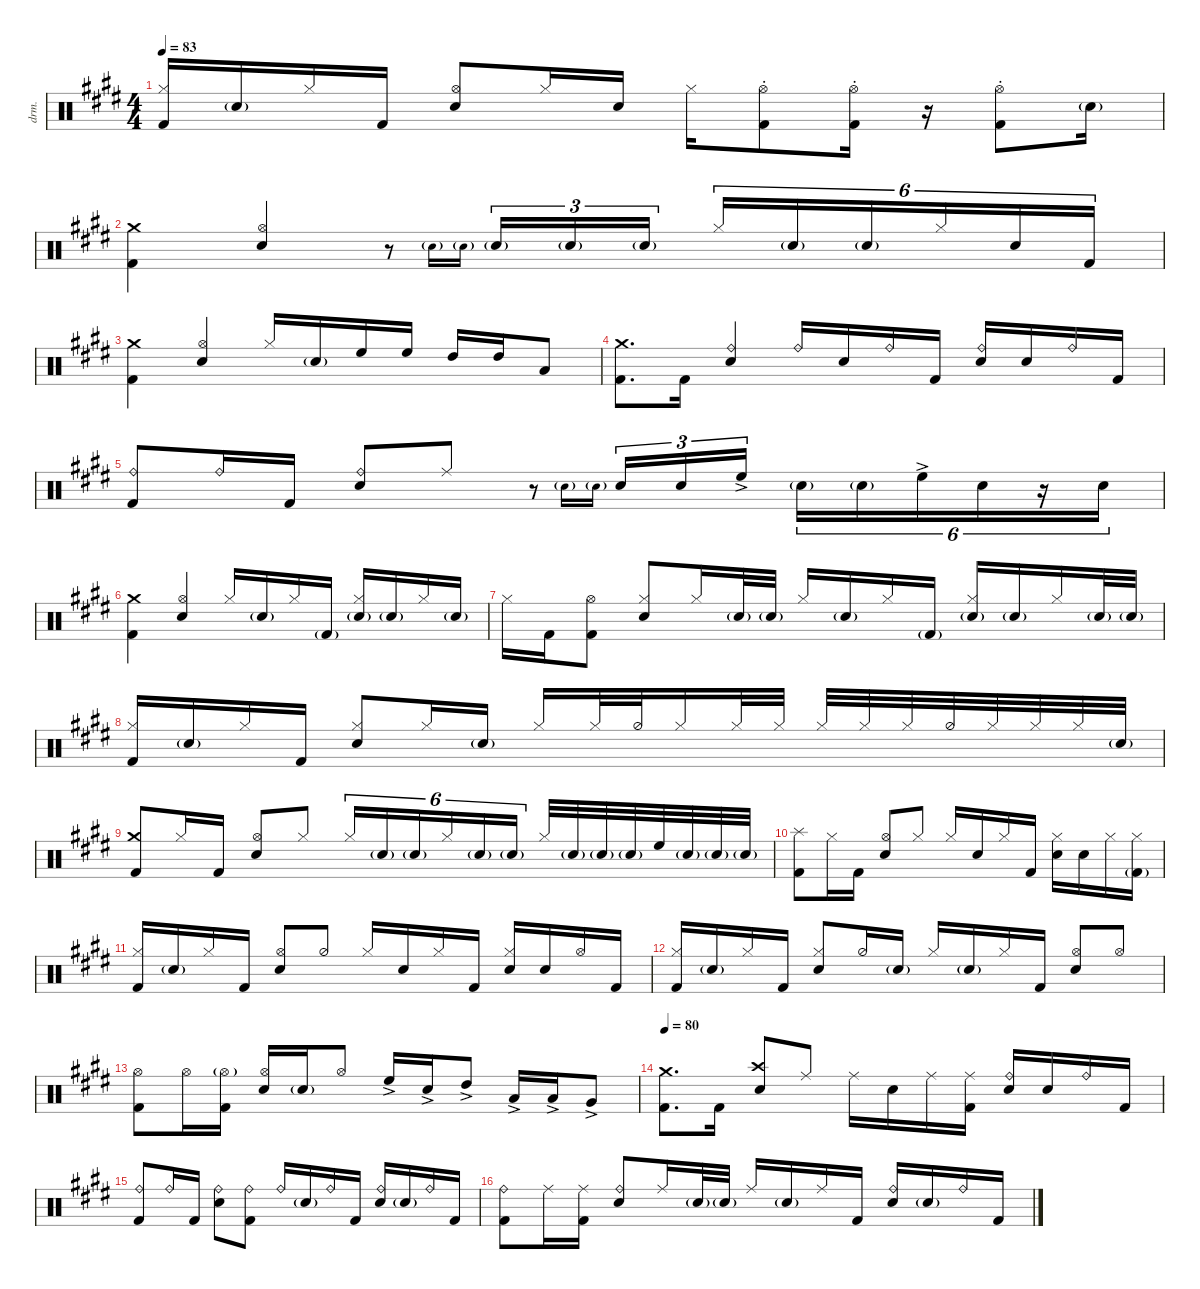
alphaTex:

\defaultSystemsLayout 4
\hideDynamics
\bracketExtendMode groupsimilarinstruments
\otherSystemsTrackNameOrientation horizontal
\chordDiagramsInScore
\track ("Drumkit" "drm.") {instrument percussion}
\staff {score}
\articulation defaults
\ts (4 4)
\tempo 83
\clef neutral
\scale
0.779565
\ks e
("Hi-Hat (closed)"{acc forcenatural} "Kick (hit) 2"{acc forcenatural}).16{dy mf beam Up} "Snare (hit) 2"{g acc forcenatural}.16{beam Up} "Hi-Hat (closed)"{acc forcenatural}.16{beam Up} "Kick (hit) 2"{acc forcenatural}.16{beam Up} ("Hi-Hat (open)"{acc forcenatural} "Snare (hit) 2"{acc forcenatural}).8{beam Up} "Hi-Hat (closed)"{acc forcenatural}.16{beam Up} "Snare (hit) 2"{acc forcenatural}.16{beam Up} "Hi-Hat (closed)"{acc forcenatural}.16 ("Hi-Hat (open)"{st acc forcenatural} "Kick (hit) 2"{acc forcenatural}).8 ("Kick (hit) 2"{acc forcenatural} "Hi-Hat (open)"{st acc forcenatural}).16 r.16 ("Hi-Hat (open)"{st acc forcenatural} "Kick (hit) 2"{acc forcenatural}).8 "Snare (hit) 2"{g acc forcenatural}.16 |
\scale
1.22044 ("Crash medium (hit)"{acc forcenatural} "Kick (hit) 2"{acc forcenatural}).4 ("Snare (hit) 2"{acc forcenatural} "Hi-Hat (open)"{acc forcenatural}).4{beam Up} r.8 "Snare (hit) 2"{g acc forcenatural}.16{gr onbeat beam Down} "Snare (hit) 2"{g acc forcenatural}.16{gr onbeat beam Down} "Snare (hit) 2"{g acc forcenatural}.16{tu (3 2) beam Up} "Snare (hit) 2"{g acc forcenatural}.16{tu (3 2) beam Up} "Snare (hit) 2"{g acc forcenatural}.16{tu (3 2) beam Up} "Hi-Hat (closed)"{acc forcenatural}.16{tu (6 4) beam Up} "Snare (hit) 2"{g acc forcenatural}.16{tu (6 4) beam Up} "Snare (hit) 2"{g acc forcenatural}.16{tu (6 4) beam Up} "Hi-Hat (closed)"{acc forcenatural}.16{tu (6 4) beam Up} "Snare (hit) 2"{acc forcenatural}.16{tu (6 4) beam Up} "Kick (hit) 2"{acc forcenatural}.16{tu (6 4) beam Up} |
("Crash medium (hit)"{acc forcenatural} "Kick (hit) 2"{acc forcenatural}).4 ("Snare (hit) 2"{acc forcenatural} "Hi-Hat (open)"{acc forcenatural}).4{beam Up} "Hi-Hat (closed)"{acc forcenatural}.16{beam Up} "Snare (hit) 2"{g acc forcenatural}.16{beam Up} "High Floor Tom (hit)"{acc forcenatural}.16{beam Up} "High Floor Tom (hit)"{acc forcenatural}.16{beam Up} "High Tom (hit)"{acc forcenatural}.16{beam Up} "High Tom (hit)"{acc forcenatural}.16{beam Up} "Low Tom (hit)"{acc forcenatural}.8{beam Up} |
("Kick (hit) 2"{acc forcenatural} "Crash medium (hit)"{acc forcenatural}).8{d} "Kick (hit) 2"{acc forcenatural}.16 ("Snare (hit) 2"{acc forcenatural} "Ride (bell)"{acc forcenatural}).4{beam Up} "Ride (bell)"{acc forcenatural}.16{beam Up} "Snare (hit) 2"{acc forcenatural}.16{beam Up} "Ride (bell)"{acc forcenatural}.16{beam Up} "Kick (hit) 2"{acc forcenatural}.16{beam Up} ("Ride (bell)"{acc forcenatural} "Snare (hit) 2"{acc forcenatural}).16{beam Up} "Snare (hit) 2"{acc forcenatural}.16{beam Up} "Ride (bell)"{acc forcenatural}.16{beam Up} "Kick (hit) 2"{acc forcenatural}.16{beam Up} |
("Ride (bell)"{acc forcenatural} "Kick (hit) 2"{acc forcenatural}).8{beam Up} "Ride (bell)"{acc forcenatural}.16{beam Up} "Kick (hit) 2"{acc forcenatural}.16{beam Up} ("Ride (bell)"{acc forcenatural} "Snare (hit) 2"{acc forcenatural}).8{beam Up} "Ride (middle)"{acc forcenatural}.8{beam Up} r.8 "Snare (hit) 2"{g acc forcenatural}.16{gr onbeat beam Down} "Snare (hit) 2"{g acc forcenatural}.16{gr onbeat beam Down} "Snare (hit) 2"{acc forcenatural}.16{tu (3 2) beam Up} "Snare (hit) 2"{acc forcenatural}.16{tu (3 2) beam Up} "High Floor Tom (hit)"{ac acc forcenatural}.16{tu (3 2) beam Up} "Snare (hit) 2"{g acc forcenatural}.16{tu (6 4)} "Snare (hit) 2"{g acc forcenatural}.16{tu (6 4)} "High Floor Tom (hit)"{ac acc forcenatural}.16{tu (6 4)} "Snare (hit) 2"{acc forcenatural}.16{tu (6 4)} r.16{tu (6 4)} "Snare (hit) 2"{acc forcenatural}.16{tu (6 4)} |
("Kick (hit) 2"{acc forcenatural} "Crash medium (hit)"{acc forcenatural}).4 ("Hi-Hat (open)"{acc forcenatural} "Snare (hit) 2"{acc forcenatural}).4{beam Up} "Hi-Hat (closed)"{acc forcenatural}.16{beam Up} "Snare (hit) 2"{g acc forcenatural}.16{beam Up} "Hi-Hat (closed)"{acc forcenatural}.16{beam Up} "Kick (hit) 2"{g acc forcenatural}.16{beam Up} ("Snare (hit) 2"{g acc forcenatural} "Hi-Hat (closed)"{acc forcenatural}).16{beam Up} "Snare (hit) 2"{g acc forcenatural}.16{beam Up} "Hi-Hat (closed)"{acc forcenatural}.16{beam Up} "Snare (hit) 2"{g acc forcenatural}.16{beam Up} |
"Hi-Hat (closed)"{acc forcenatural}.16 "Kick (hit) 2"{acc forcenatural}.16 ("Hi-Hat (open)"{acc forcenatural} "Kick (hit) 2"{acc forcenatural}).8 ("Hi-Hat (closed)"{acc forcenatural} "Snare (hit) 2"{acc forcenatural}).8{beam Up} "Hi-Hat (closed)"{acc forcenatural}.16{beam Up} "Snare (hit) 2"{g acc forcenatural}.32{beam Up} "Snare (hit) 2"{g acc forcenatural}.32{beam Up} "Hi-Hat (closed)"{acc forcenatural}.16{beam Up} "Snare (hit) 2"{g acc forcenatural}.16{beam Up} "Hi-Hat (closed)"{acc forcenatural}.16{beam Up} "Kick (hit) 2"{g acc forcenatural}.16{beam Up} ("Hi-Hat (closed)"{acc forcenatural} "Snare (hit) 2"{g acc forcenatural}).16{beam Up} "Snare (hit) 2"{g acc forcenatural}.16{beam Up} "Hi-Hat (closed)"{acc forcenatural}.16{beam Up} "Snare (hit) 2"{g acc forcenatural}.32{beam Up} "Snare (hit) 2"{g acc forcenatural}.32{beam Up} |
("Kick (hit) 2"{acc forcenatural} "Hi-Hat (closed)"{acc forcenatural}).16{beam Up} "Snare (hit) 2"{g acc forcenatural}.16{beam Up} "Hi-Hat (closed)"{acc forcenatural}.16{beam Up} "Kick (hit) 2"{acc forcenatural}.16{beam Up} ("Snare (hit) 2"{acc forcenatural} "Hi-Hat (closed)"{acc forcenatural}).8{beam Up} "Hi-Hat (closed)"{acc forcenatural}.16{beam Up} "Snare (hit) 2"{g acc forcenatural}.16{beam Up} "Hi-Hat (closed)"{acc forcenatural}.16{beam Up} "Hi-Hat (closed)"{acc forcenatural}.32{beam Up} "Hi-Hat (half)"{acc forcenatural}.32{beam Up} "Hi-Hat (closed)"{acc forcenatural}.16{beam Up} "Hi-Hat (closed)"{acc forcenatural}.32{beam Up} "Hi-Hat (closed)"{acc forcenatural}.32{beam Up} "Hi-Hat (closed)"{acc forcenatural}.32{beam Up} "Hi-Hat (closed)"{acc forcenatural}.32{beam Up} "Hi-Hat (closed)"{acc forcenatural}.32{beam Up} "Hi-Hat (half)"{acc forcenatural}.32{beam Up} "Hi-Hat (closed)"{acc forcenatural}.32{beam Up} "Hi-Hat (closed)"{acc forcenatural}.32{beam Up} "Hi-Hat (closed)"{acc forcenatural}.32{beam Up} "Snare (hit) 2"{g acc forcenatural}.32{beam Up} |
\scale
1.22987 ("Crash medium (hit)"{acc forcenatural} "Kick (hit) 2"{acc forcenatural}).8{beam Up} "Hi-Hat (closed)"{acc forcenatural}.16{beam Up} "Kick (hit) 2"{acc forcenatural}.16{beam Up} ("Hi-Hat (open)"{acc forcenatural} "Snare (hit) 2"{acc forcenatural}).8{beam Up} "Hi-Hat (closed)"{acc forcenatural}.8{beam Up} "Hi-Hat (closed)"{acc forcenatural}.16{tu (6 4) beam Up} "Snare (hit) 2"{g acc forcenatural}.16{tu (6 4) beam Up} "Snare (hit) 2"{g acc forcenatural}.16{tu (6 4) beam Up} "Hi-Hat (closed)"{acc forcenatural}.16{tu (6 4) beam Up} "Snare (hit) 2"{g acc forcenatural}.16{tu (6 4) beam Up} "Snare (hit) 2"{g acc forcenatural}.16{tu (6 4) beam Up} "Hi-Hat (closed)"{acc forcenatural}.32{beam Up} "Snare (hit) 2"{g acc forcenatural}.32{beam Up} "Snare (hit) 2"{g acc forcenatural}.32{beam Up} "Snare (hit) 2"{g acc forcenatural}.32{beam Up} "High Floor Tom (hit)"{acc forcenatural}.32{beam Up} "Snare (hit) 2"{g acc forcenatural}.32{beam Up} "Snare (hit) 2"{g acc forcenatural}.32{beam Up} "Snare (hit) 2"{g acc forcenatural}.32{beam Up} |
\scale
0.770128 ("Splash (hit)"{acc forcenatural} "Kick (hit) 2"{acc forcenatural}).8 "Hi-Hat (closed)"{acc forcenatural}.16 "Kick (hit) 2"{acc forcenatural}.16 ("Snare (hit) 2"{acc forcenatural} "Hi-Hat (open)"{acc forcenatural}).8{beam Up} "Hi-Hat (closed)"{acc forcenatural}.8{beam Up} "Hi-Hat (closed)"{acc forcenatural}.16{beam Up} "Snare (hit) 2"{acc forcenatural}.16{beam Up} "Hi-Hat (closed)"{acc forcenatural}.16{beam Up} "Kick (hit) 2"{acc forcenatural}.16{beam Up} ("Hi-Hat (closed)"{acc forcenatural} "Snare (hit) 2"{acc forcenatural}).16 "Snare (hit) 2"{acc forcenatural}.16 "Hi-Hat (closed)"{acc forcenatural}.16 ("Hi-Hat (closed)"{acc forcenatural} "Kick (hit) 2"{g acc forcenatural}).16 |
("Kick (hit) 2"{acc forcenatural} "Hi-Hat (closed)"{acc forcenatural}).16{beam Up} "Snare (hit) 2"{g acc forcenatural}.16{beam Up} "Hi-Hat (closed)"{acc forcenatural}.16{beam Up} "Kick (hit) 2"{acc forcenatural}.16{beam Up} ("Hi-Hat (open)"{acc forcenatural} "Snare (hit) 2"{acc forcenatural}).8{beam Up} "Hi-Hat (half)"{acc forcenatural}.8{beam Up} "Hi-Hat (closed)"{acc forcenatural}.16{beam Up} "Snare (hit) 2"{acc forcenatural}.16{beam Up} "Hi-Hat (closed)"{acc forcenatural}.16{beam Up} "Kick (hit) 2"{acc forcenatural}.16{beam Up} ("Hi-Hat (closed)"{acc forcenatural} "Snare (hit) 2"{acc forcenatural}).16{beam Up} "Snare (hit) 2"{acc forcenatural}.16{beam Up} "Hi-Hat (open)"{acc forcenatural}.16{beam Up} "Kick (hit) 2"{acc forcenatural}.16{beam Up} |
("Kick (hit) 2"{acc forcenatural} "Hi-Hat (closed)"{acc forcenatural}).16{beam Up} "Snare (hit) 2"{g acc forcenatural}.16{beam Up} "Hi-Hat (closed)"{acc forcenatural}.16{beam Up} "Kick (hit) 2"{acc forcenatural}.16{beam Up} ("Hi-Hat (closed)"{acc forcenatural} "Snare (hit) 2"{acc forcenatural}).8{beam Up} "Hi-Hat (half)"{acc forcenatural}.16{beam Up} "Snare (hit) 2"{g acc forcenatural}.16{beam Up} "Hi-Hat (closed)"{acc forcenatural}.16{beam Up} "Snare (hit) 2"{g acc forcenatural}.16{beam Up} "Hi-Hat (closed)"{acc forcenatural}.16{beam Up} "Kick (hit) 2"{acc forcenatural}.16{beam Up} ("Hi-Hat (open)"{acc forcenatural} "Snare (hit) 2"{acc forcenatural}).8{beam Up} "Hi-Hat (open)"{acc forcenatural}.8{beam Up} |
("Hi-Hat (open)"{acc forcenatural} "Kick (hit) 2"{acc forcenatural}).8 "Hi-Hat (open)"{acc forcenatural}.16 ("Hi-Hat (open)"{g acc forcenatural} "Kick (hit) 2"{acc forcenatural}).16 ("Hi-Hat (open)"{acc forcenatural} "Snare (hit) 2"{acc forcenatural}).16{beam Up} "Snare (hit) 2"{g acc forcenatural}.16{beam Up} "Hi-Hat (open)"{acc forcenatural}.8{beam Up} "High Floor Tom (hit)"{ac acc forcenatural}.16{beam Up} "Snare (hit) 2"{ac acc forcenatural}.16{beam Up} "High Tom (hit)"{ac acc forcenatural}.8{beam Up} "Low Tom (hit)"{ac acc forcenatural}.16 "Low Tom (hit)"{ac acc forcenatural}.16 "Very Low Tom (hit)"{ac acc forcenatural}.8 |
\tempo 80
("Crash medium (hit)"{acc forcenatural} "Kick (hit) 2"{acc forcenatural}).8{d} "Kick (hit) 2"{acc forcenatural}.16 ("Crash high (hit)"{acc forcenatural} "Snare (hit) 2"{acc forcenatural}).8{beam Up} "Ride (middle)"{acc forcenatural}.8{beam Up} "Ride (middle)"{acc forcenatural}.16 "Snare (hit) 2"{acc forcenatural}.16 "Ride (middle)"{acc forcenatural}.16 ("Ride (middle)"{acc forcenatural} "Kick (hit) 2"{acc forcenatural}).16 ("Ride (bell)"{acc forcenatural} "Snare (hit) 2"{acc forcenatural}).16{beam Up} "Snare (hit) 2"{acc forcenatural}.16{beam Up} "Ride (bell)"{acc forcenatural}.16{beam Up} "Kick (hit) 2"{acc forcenatural}.16{beam Up} |
\scale
1.00526 ("Ride (bell)"{acc forcenatural} "Kick (hit) 2"{acc forcenatural}).8{beam Up} "Ride (bell)"{acc forcenatural}.16{beam Up} "Kick (hit) 2"{acc forcenatural}.16{beam Up} ("Ride (bell)"{acc forcenatural} "Snare (hit) 2"{acc forcenatural}).8 ("Ride (bell)"{acc forcenatural} "Kick (hit) 2"{acc forcenatural}).8 "Ride (bell)"{acc forcenatural}.16{beam Up} "Snare (hit) 2"{g acc forcenatural}.16{beam Up} "Ride (bell)"{acc forcenatural}.16{beam Up} "Kick (hit) 2"{acc forcenatural}.16{beam Up} ("Snare (hit) 2"{acc forcenatural} "Ride (bell)"{acc forcenatural}).16{beam Up} "Snare (hit) 2"{g acc forcenatural}.16{beam Up} "Ride (bell)"{acc forcenatural}.16{beam Up} "Kick (hit) 2"{acc forcenatural}.16{beam Up} |
\scale
0.994739 ("Ride (bell)"{acc forcenatural} "Kick (hit) 2"{acc forcenatural}).8 "Ride (middle)"{acc forcenatural}.16 ("Ride (middle)"{acc forcenatural} "Kick (hit) 2"{acc forcenatural}).16 ("Snare (hit) 2"{acc forcenatural} "Ride (bell)"{acc forcenatural}).8{beam Up} "Ride (middle)"{acc forcenatural}.16{beam Up} "Snare (hit) 2"{g acc forcenatural}.32{beam Up} "Snare (hit) 2"{g acc forcenatural}.32{beam Up} "Ride (middle)"{acc forcenatural}.16{beam Up} "Snare (hit) 2"{g acc forcenatural}.16{beam Up} "Ride (middle)"{acc forcenatural}.16{beam Up} "Kick (hit) 2"{acc forcenatural}.16{beam Up} ("Ride (bell)"{acc forcenatural} "Snare (hit) 2"{acc forcenatural}).16{beam Up} "Snare (hit) 2"{g acc forcenatural}.16{beam Up} "Ride (bell)"{acc forcenatural}.16{beam Up} "Kick (hit) 2"{acc forcenatural}.16{beam Up}
